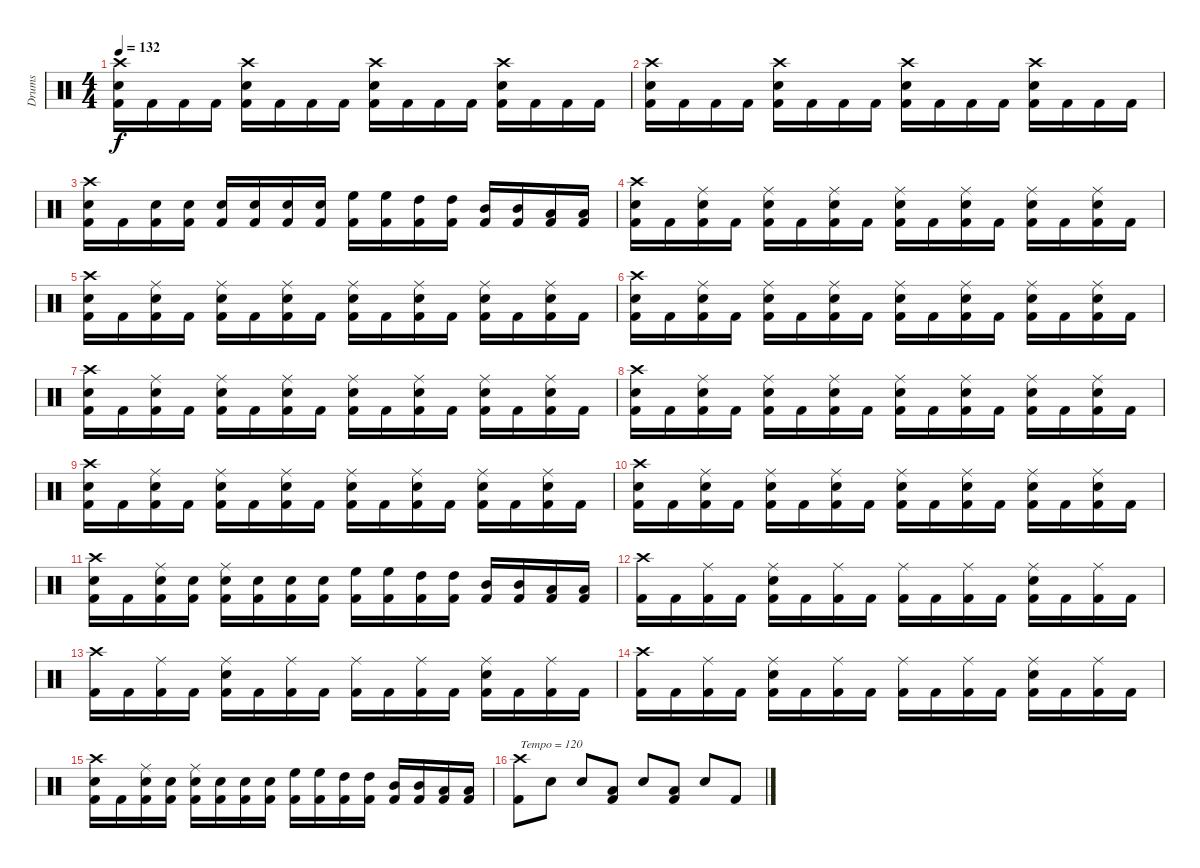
\track ("Drums" "Drums") {instrument percussion}
\staff {score}
\articulation defaults
\ts (4 4)
\tempo 132
\clef neutral
\ks c
("Kick (hit) 2" "Snare (hit) 2" "Crash high (hit)").16{dy f} "Kick (hit) 2".16 "Kick (hit) 2".16 "Kick (hit) 2".16 ("Kick (hit) 2" "Snare (hit) 2" "Crash high (hit)").16 "Kick (hit) 2".16 "Kick (hit) 2".16 "Kick (hit) 2".16 ("Kick (hit) 2" "Snare (hit) 2" "Crash high (hit)").16 "Kick (hit) 2".16 "Kick (hit) 2".16 "Kick (hit) 2".16 ("Kick (hit) 2" "Snare (hit) 2" "Crash high (hit)").16 "Kick (hit) 2".16 "Kick (hit) 2".16 "Kick (hit) 2".16 |
("Kick (hit) 2" "Snare (hit) 2" "Crash high (hit)").16 "Kick (hit) 2".16 "Kick (hit) 2".16 "Kick (hit) 2".16 ("Kick (hit) 2" "Snare (hit) 2" "Crash high (hit)").16 "Kick (hit) 2".16 "Kick (hit) 2".16 "Kick (hit) 2".16 ("Kick (hit) 2" "Snare (hit) 2" "Crash high (hit)").16 "Kick (hit) 2".16 "Kick (hit) 2".16 "Kick (hit) 2".16 ("Kick (hit) 2" "Snare (hit) 2" "Crash high (hit)").16 "Kick (hit) 2".16 "Kick (hit) 2".16 "Kick (hit) 2".16 |
("Kick (hit) 2" "Snare (hit) 2" "Crash high (hit)").16 "Kick (hit) 2".16 ("Kick (hit) 2" "Snare (hit) 2").16 ("Kick (hit) 2" "Snare (hit) 2").16 ("Kick (hit) 2" "Snare (hit) 2").16 ("Kick (hit) 2" "Snare (hit) 2").16 ("Kick (hit) 2" "Snare (hit) 2").16 ("Kick (hit) 2" "Snare (hit) 2").16 ("Kick (hit) 2" "High Floor Tom (hit)").16 ("Kick (hit) 2" "High Floor Tom (hit)").16 ("Kick (hit) 2" "High Tom (hit)").16 ("Kick (hit) 2" "High Tom (hit)").16 ("Kick (hit) 2" "Mid Tom (hit)").16 ("Kick (hit) 2" "Mid Tom (hit)").16 ("Kick (hit) 2" "Low Tom (hit)").16 ("Kick (hit) 2" "Low Tom (hit)").16 |
("Kick (hit) 2" "Snare (hit) 2" "Crash high (hit)").16 "Kick (hit) 2".16 ("Kick (hit) 2" "Snare (hit) 2" "Ride (middle)").16 "Kick (hit) 2".16 ("Kick (hit) 2" "Snare (hit) 2" "Ride (middle)").16 "Kick (hit) 2".16 ("Kick (hit) 2" "Snare (hit) 2" "Ride (middle)").16 "Kick (hit) 2".16 ("Kick (hit) 2" "Snare (hit) 2" "Ride (middle)").16 "Kick (hit) 2".16 ("Kick (hit) 2" "Snare (hit) 2" "Ride (middle)").16 "Kick (hit) 2".16 ("Kick (hit) 2" "Snare (hit) 2" "Ride (middle)").16 "Kick (hit) 2".16 ("Kick (hit) 2" "Snare (hit) 2" "Ride (middle)").16 "Kick (hit) 2".16 |
("Kick (hit) 2" "Snare (hit) 2" "Crash high (hit)").16 "Kick (hit) 2".16 ("Kick (hit) 2" "Snare (hit) 2" "Ride (middle)").16 "Kick (hit) 2".16 ("Kick (hit) 2" "Snare (hit) 2" "Ride (middle)").16 "Kick (hit) 2".16 ("Kick (hit) 2" "Snare (hit) 2" "Ride (middle)").16 "Kick (hit) 2".16 ("Kick (hit) 2" "Snare (hit) 2" "Ride (middle)").16 "Kick (hit) 2".16 ("Kick (hit) 2" "Snare (hit) 2" "Ride (middle)").16 "Kick (hit) 2".16 ("Kick (hit) 2" "Snare (hit) 2" "Ride (middle)").16 "Kick (hit) 2".16 ("Kick (hit) 2" "Snare (hit) 2" "Ride (middle)").16 "Kick (hit) 2".16 |
("Kick (hit) 2" "Snare (hit) 2" "Crash high (hit)").16 "Kick (hit) 2".16 ("Kick (hit) 2" "Snare (hit) 2" "Ride (middle)").16 "Kick (hit) 2".16 ("Kick (hit) 2" "Snare (hit) 2" "Ride (middle)").16 "Kick (hit) 2".16 ("Kick (hit) 2" "Snare (hit) 2" "Ride (middle)").16 "Kick (hit) 2".16 ("Kick (hit) 2" "Snare (hit) 2" "Ride (middle)").16 "Kick (hit) 2".16 ("Kick (hit) 2" "Snare (hit) 2" "Ride (middle)").16 "Kick (hit) 2".16 ("Kick (hit) 2" "Snare (hit) 2" "Ride (middle)").16 "Kick (hit) 2".16 ("Kick (hit) 2" "Snare (hit) 2" "Ride (middle)").16 "Kick (hit) 2".16 |
("Kick (hit) 2" "Snare (hit) 2" "Crash high (hit)").16 "Kick (hit) 2".16 ("Kick (hit) 2" "Snare (hit) 2" "Ride (middle)").16 "Kick (hit) 2".16 ("Kick (hit) 2" "Snare (hit) 2" "Ride (middle)").16 "Kick (hit) 2".16 ("Kick (hit) 2" "Snare (hit) 2" "Ride (middle)").16 "Kick (hit) 2".16 ("Kick (hit) 2" "Snare (hit) 2" "Ride (middle)").16 "Kick (hit) 2".16 ("Kick (hit) 2" "Snare (hit) 2" "Ride (middle)").16 "Kick (hit) 2".16 ("Kick (hit) 2" "Snare (hit) 2" "Ride (middle)").16 "Kick (hit) 2".16 ("Kick (hit) 2" "Snare (hit) 2" "Ride (middle)").16 "Kick (hit) 2".16 |
("Kick (hit) 2" "Snare (hit) 2" "Crash high (hit)").16 "Kick (hit) 2".16 ("Kick (hit) 2" "Snare (hit) 2" "Ride (middle)").16 "Kick (hit) 2".16 ("Kick (hit) 2" "Snare (hit) 2" "Ride (middle)").16 "Kick (hit) 2".16 ("Kick (hit) 2" "Snare (hit) 2" "Ride (middle)").16 "Kick (hit) 2".16 ("Kick (hit) 2" "Snare (hit) 2" "Ride (middle)").16 "Kick (hit) 2".16 ("Kick (hit) 2" "Snare (hit) 2" "Ride (middle)").16 "Kick (hit) 2".16 ("Kick (hit) 2" "Snare (hit) 2" "Ride (middle)").16 "Kick (hit) 2".16 ("Kick (hit) 2" "Snare (hit) 2" "Ride (middle)").16 "Kick (hit) 2".16 |
("Kick (hit) 2" "Snare (hit) 2" "Crash high (hit)").16 "Kick (hit) 2".16 ("Kick (hit) 2" "Snare (hit) 2" "Ride (middle)").16 "Kick (hit) 2".16 ("Kick (hit) 2" "Snare (hit) 2" "Ride (middle)").16 "Kick (hit) 2".16 ("Kick (hit) 2" "Snare (hit) 2" "Ride (middle)").16 "Kick (hit) 2".16 ("Kick (hit) 2" "Snare (hit) 2" "Ride (middle)").16 "Kick (hit) 2".16 ("Kick (hit) 2" "Snare (hit) 2" "Ride (middle)").16 "Kick (hit) 2".16 ("Kick (hit) 2" "Snare (hit) 2" "Ride (middle)").16 "Kick (hit) 2".16 ("Kick (hit) 2" "Snare (hit) 2" "Ride (middle)").16 "Kick (hit) 2".16 |
("Kick (hit) 2" "Snare (hit) 2" "Crash high (hit)").16 "Kick (hit) 2".16 ("Kick (hit) 2" "Snare (hit) 2" "Ride (middle)").16 "Kick (hit) 2".16 ("Kick (hit) 2" "Snare (hit) 2" "Ride (middle)").16 "Kick (hit) 2".16 ("Kick (hit) 2" "Snare (hit) 2" "Ride (middle)").16 "Kick (hit) 2".16 ("Kick (hit) 2" "Snare (hit) 2" "Ride (middle)").16 "Kick (hit) 2".16 ("Kick (hit) 2" "Snare (hit) 2" "Ride (middle)").16 "Kick (hit) 2".16 ("Kick (hit) 2" "Snare (hit) 2" "Ride (middle)").16 "Kick (hit) 2".16 ("Kick (hit) 2" "Snare (hit) 2" "Ride (middle)").16 "Kick (hit) 2".16 |
("Kick (hit) 2" "Snare (hit) 2" "Crash high (hit)").16 "Kick (hit) 2".16 ("Kick (hit) 2" "Snare (hit) 2" "Ride (middle)").16 ("Kick (hit) 2" "Snare (hit) 2").16 ("Kick (hit) 2" "Snare (hit) 2" "Ride (middle)").16 ("Kick (hit) 2" "Snare (hit) 2").16 ("Kick (hit) 2" "Snare (hit) 2").16 ("Kick (hit) 2" "Snare (hit) 2").16 ("Kick (hit) 2" "High Floor Tom (hit)").16 ("Kick (hit) 2" "High Floor Tom (hit)").16 ("Kick (hit) 2" "High Tom (hit)").16 ("Kick (hit) 2" "High Tom (hit)").16 ("Kick (hit) 2" "Mid Tom (hit)").16 ("Kick (hit) 2" "Mid Tom (hit)").16 ("Kick (hit) 2" "Low Tom (hit)").16 ("Kick (hit) 2" "Low Tom (hit)").16 |
("Kick (hit) 2" "Crash high (hit)").16 "Kick (hit) 2".16 ("Kick (hit) 2" "Ride (middle)").16 "Kick (hit) 2".16 ("Kick (hit) 2" "Snare (hit) 2" "Ride (middle)").16 "Kick (hit) 2".16 ("Kick (hit) 2" "Ride (middle)").16 "Kick (hit) 2".16 ("Kick (hit) 2" "Ride (middle)").16 "Kick (hit) 2".16 ("Kick (hit) 2" "Ride (middle)").16 "Kick (hit) 2".16 ("Kick (hit) 2" "Snare (hit) 2" "Ride (middle)").16 "Kick (hit) 2".16 ("Kick (hit) 2" "Ride (middle)").16 "Kick (hit) 2".16 |
("Kick (hit) 2" "Crash high (hit)").16 "Kick (hit) 2".16 ("Kick (hit) 2" "Ride (middle)").16 "Kick (hit) 2".16 ("Kick (hit) 2" "Snare (hit) 2" "Ride (middle)").16 "Kick (hit) 2".16 ("Kick (hit) 2" "Ride (middle)").16 "Kick (hit) 2".16 ("Kick (hit) 2" "Ride (middle)").16 "Kick (hit) 2".16 ("Kick (hit) 2" "Ride (middle)").16 "Kick (hit) 2".16 ("Kick (hit) 2" "Snare (hit) 2" "Ride (middle)").16 "Kick (hit) 2".16 ("Kick (hit) 2" "Ride (middle)").16 "Kick (hit) 2".16 |
("Kick (hit) 2" "Crash high (hit)").16 "Kick (hit) 2".16 ("Kick (hit) 2" "Ride (middle)").16 "Kick (hit) 2".16 ("Kick (hit) 2" "Snare (hit) 2" "Ride (middle)").16 "Kick (hit) 2".16 ("Kick (hit) 2" "Ride (middle)").16 "Kick (hit) 2".16 ("Kick (hit) 2" "Ride (middle)").16 "Kick (hit) 2".16 ("Kick (hit) 2" "Ride (middle)").16 "Kick (hit) 2".16 ("Kick (hit) 2" "Snare (hit) 2" "Ride (middle)").16 "Kick (hit) 2".16 ("Kick (hit) 2" "Ride (middle)").16 "Kick (hit) 2".16 |
("Kick (hit) 2" "Snare (hit) 2" "Crash high (hit)").16 "Kick (hit) 2".16 ("Kick (hit) 2" "Snare (hit) 2" "Ride (middle)").16 ("Kick (hit) 2" "Snare (hit) 2").16 ("Kick (hit) 2" "Snare (hit) 2" "Ride (middle)").16 ("Kick (hit) 2" "Snare (hit) 2").16 ("Kick (hit) 2" "Snare (hit) 2").16 ("Kick (hit) 2" "Snare (hit) 2").16 ("Kick (hit) 2" "High Floor Tom (hit)").16 ("Kick (hit) 2" "High Floor Tom (hit)").16 ("Kick (hit) 2" "High Tom (hit)").16 ("Kick (hit) 2" "High Tom (hit)").16 ("Kick (hit) 2" "Mid Tom (hit)").16 ("Kick (hit) 2" "Mid Tom (hit)").16 ("Kick (hit) 2" "Low Tom (hit)").16 ("Kick (hit) 2" "Low Tom (hit)").16 |
("Kick (hit) 2" "Crash high (hit)").8{txt "Tempo = 120"} "Snare (hit) 2".8 "Snare (hit) 2".8 ("Kick (hit) 2" "Low Tom (hit)").8 "Snare (hit) 2".8 ("Kick (hit) 2" "Low Tom (hit)").8 "Snare (hit) 2".8 "Kick (hit) 2".8
